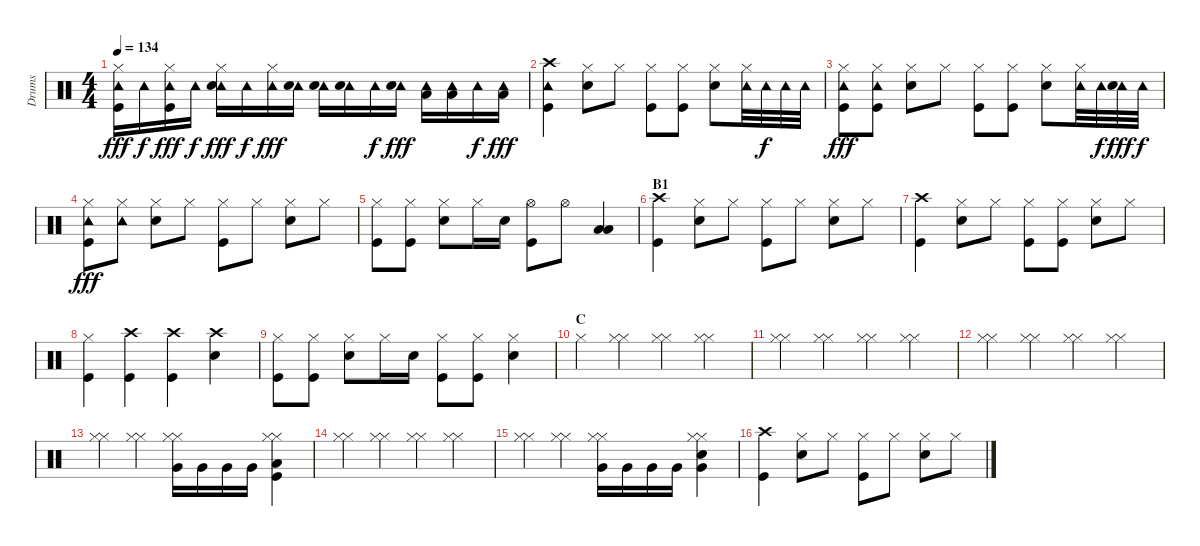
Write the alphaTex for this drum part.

\track ("Drums" "Drums") {instrument percussion}
\staff {score}
\articulation defaults
\ts (4 4)
\tempo 134
\clef neutral
\ks c
("Hi-Hat (closed)" "Tambourine (hit)" "Kick (hit)").16{dy fff} "Tambourine (hit)".16{dy f} ("Hi-Hat (closed)" "Tambourine (hit)" "Kick (hit)").16{dy fff} "Tambourine (hit)".16{dy f} ("Hi-Hat (closed)" "Tambourine (hit)" "Snare (hit) 2").16{dy fff} "Tambourine (hit)".16{dy f} ("Hi-Hat (closed)" "Tambourine (hit)").16{dy fff} ("Tambourine (hit)" "Snare (hit) 2").16 ("Tambourine (hit)" "Snare (hit) 2").16 ("Tambourine (hit)" "Snare (hit) 2").16 "Tambourine (hit)".16{dy f} ("Tambourine (hit)" "Snare (hit) 2").16{dy fff} ("Tambourine (hit)" "Low Tom (hit)").16 ("Tambourine (hit)" "Low Tom (hit)").16 "Tambourine (hit)".16{dy f} ("Tambourine (hit)" "Low Tom (hit)").16{dy fff} |
("Crash high (hit)" "Tambourine (hit)" "Kick (hit)").4 ("Hi-Hat (closed)" "Snare (hit) 2").8 "Hi-Hat (closed)".8 ("Hi-Hat (closed)" "Kick (hit)").8 ("Hi-Hat (closed)" "Kick (hit)").8 ("Hi-Hat (closed)" "Snare (hit) 2").8 ("Hi-Hat (closed)" "Tambourine (hit)").32 "Tambourine (hit)".32{dy f} "Tambourine (hit)".32 "Tambourine (hit)".32 |
("Hi-Hat (closed)" "Tambourine (hit)" "Kick (hit)").8{dy fff} ("Hi-Hat (closed)" "Tambourine (hit)" "Kick (hit)").8 ("Hi-Hat (closed)" "Snare (hit) 2").8 "Hi-Hat (closed)".8 ("Hi-Hat (closed)" "Kick (hit)").8 ("Hi-Hat (closed)" "Kick (hit)").8 ("Hi-Hat (closed)" "Snare (hit) 2").8 ("Hi-Hat (closed)" "Tambourine (hit)").32 "Tambourine (hit)".32{dy f} ("Tambourine (hit)" "Snare (hit) 2").32{dy fff} "Tambourine (hit)".32{dy f} |
("Hi-Hat (closed)" "Tambourine (hit)" "Kick (hit)").8{dy fff} ("Hi-Hat (closed)" "Tambourine (hit)").8 ("Hi-Hat (closed)" "Snare (hit) 2").8 "Hi-Hat (closed)".8 ("Hi-Hat (closed)" "Kick (hit)").8 "Hi-Hat (closed)".8 ("Hi-Hat (closed)" "Snare (hit) 2").8 "Hi-Hat (closed)".8 |
("Hi-Hat (closed)" "Kick (hit)").8 ("Hi-Hat (closed)" "Kick (hit)").8 ("Hi-Hat (closed)" "Snare (hit) 2").8 "Hi-Hat (closed)".16 "Snare (hit) 2".16 ("Hi-Hat (open)" "Kick (hit)").8 "Hi-Hat (open)".8 ("Low Tom (hit)" "Low Floor Tom (hit)").4 |
\section ("" "B1")
("Crash high (hit)" "Kick (hit)").4 ("Hi-Hat (closed)" "Snare (hit) 2").8 "Hi-Hat (closed)".8 ("Hi-Hat (closed)" "Kick (hit)").8 "Hi-Hat (closed)".8 ("Hi-Hat (closed)" "Snare (hit) 2").8 "Hi-Hat (closed)".8 |
("Crash high (hit)" "Kick (hit)").4 ("Hi-Hat (closed)" "Snare (hit) 2").8 "Hi-Hat (closed)".8 ("Hi-Hat (closed)" "Kick (hit)").8 ("Hi-Hat (closed)" "Kick (hit)").8 ("Hi-Hat (closed)" "Snare (hit) 2").8 "Hi-Hat (closed)".8 |
("Hi-Hat (closed)" "Kick (hit)").4 ("Crash high (hit)" "Kick (hit)").4 ("Crash high (hit)" "Kick (hit)").4 ("Crash high (hit)" "Snare (hit) 2").4 |
("Hi-Hat (closed)" "Kick (hit)").8 ("Hi-Hat (closed)" "Kick (hit)").8 ("Hi-Hat (closed)" "Snare (hit) 2").8 "Hi-Hat (closed)".16 "Snare (hit) 2".16 ("Hi-Hat (closed)" "Kick (hit)").8 ("Hi-Hat (closed)" "Kick (hit)").8 ("Hi-Hat (closed)" "Snare (hit) 2").4 |
\section ("" "C")
"Hi-Hat (closed)".4 ("Hi-Hat (closed)" "Hi-Hat (closed)").4 ("Hi-Hat (closed)" "Hi-Hat (closed)").4 ("Hi-Hat (closed)" "Hi-Hat (closed)").4 |
("Hi-Hat (closed)" "Hi-Hat (closed)").4 ("Hi-Hat (closed)" "Hi-Hat (closed)").4 ("Hi-Hat (closed)" "Hi-Hat (closed)").4 ("Hi-Hat (closed)" "Hi-Hat (closed)").4 |
("Hi-Hat (closed)" "Hi-Hat (closed)").4 ("Hi-Hat (closed)" "Hi-Hat (closed)").4 ("Hi-Hat (closed)" "Hi-Hat (closed)").4 ("Hi-Hat (closed)" "Hi-Hat (closed)").4 |
("Hi-Hat (closed)" "Hi-Hat (closed)").4 ("Hi-Hat (closed)" "Hi-Hat (closed)").4 ("Hi-Hat (closed)" "Hi-Hat (closed)" "Very Low Tom (hit)").16 "Very Low Tom (hit)".16 "Very Low Tom (hit)".16 "Very Low Tom (hit)".16 ("Hi-Hat (closed)" "Hi-Hat (closed)" "Low Floor Tom (hit)" "Kick (hit)").4 |
("Hi-Hat (closed)" "Hi-Hat (closed)").4 ("Hi-Hat (closed)" "Hi-Hat (closed)").4 ("Hi-Hat (closed)" "Hi-Hat (closed)").4 ("Hi-Hat (closed)" "Hi-Hat (closed)").4 |
("Hi-Hat (closed)" "Hi-Hat (closed)").4 ("Hi-Hat (closed)" "Hi-Hat (closed)").4 ("Hi-Hat (closed)" "Hi-Hat (closed)" "Very Low Tom (hit)").16 "Very Low Tom (hit)".16 "Very Low Tom (hit)".16 "Very Low Tom (hit)".16 ("Hi-Hat (closed)" "Hi-Hat (closed)" "Very Low Tom (hit)" "Snare (hit) 2").4 |
("Crash high (hit)" "Kick (hit)").4 ("Hi-Hat (closed)" "Snare (hit) 2").8 "Hi-Hat (closed)".8 ("Hi-Hat (closed)" "Kick (hit)").8 "Hi-Hat (closed)".8 ("Hi-Hat (closed)" "Snare (hit) 2").8 "Hi-Hat (closed)".8
